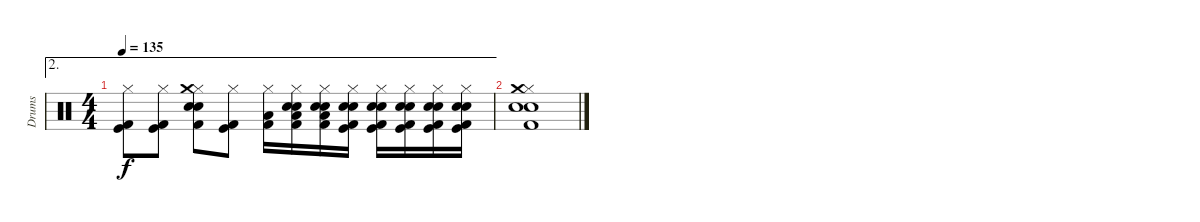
\track ("Drums" "Drums") {instrument percussion}
\staff {score}
\articulation defaults
\ae 2
\ts (4 4)
\tempo 135
\clef neutral
\ks c
("Hi-Hat (closed)" "Kick (hit)" "Kick (hit) 2").8{dy f} ("Hi-Hat (closed)" "Kick (hit)" "Kick (hit) 2").8 ("Hi-Hat (closed)" "Electric Snare (hit)" "Crash medium (hit)" "Snare (hit) 2" "Kick (hit) 2").8 ("Hi-Hat (closed)" "Kick (hit)" "Kick (hit) 2").8 ("Hi-Hat (closed)" "Low Floor Tom (hit)" "Kick (hit) 2").16 ("Electric Snare (hit)" "Snare (hit) 2" "Hi-Hat (closed)" "Low Floor Tom (hit)" "Kick (hit) 2").16 ("Electric Snare (hit)" "Snare (hit) 2" "Hi-Hat (closed)" "Low Floor Tom (hit)" "Kick (hit) 2").16 ("Electric Snare (hit)" "Snare (hit) 2" "Hi-Hat (closed)" "Kick (hit)" "Kick (hit) 2").16 ("Electric Snare (hit)" "Snare (hit) 2" "Hi-Hat (closed)" "Kick (hit)" "Kick (hit) 2").16 ("Electric Snare (hit)" "Snare (hit) 2" "Hi-Hat (closed)" "Kick (hit)" "Kick (hit) 2").16 ("Electric Snare (hit)" "Snare (hit) 2" "Hi-Hat (closed)" "Kick (hit)" "Kick (hit) 2").16 ("Electric Snare (hit)" "Snare (hit) 2" "Hi-Hat (closed)" "Kick (hit)" "Kick (hit) 2").16 |
("Hi-Hat (closed)" "Electric Snare (hit)" "Crash medium (hit)" "Snare (hit) 2" "Kick (hit) 2").1
